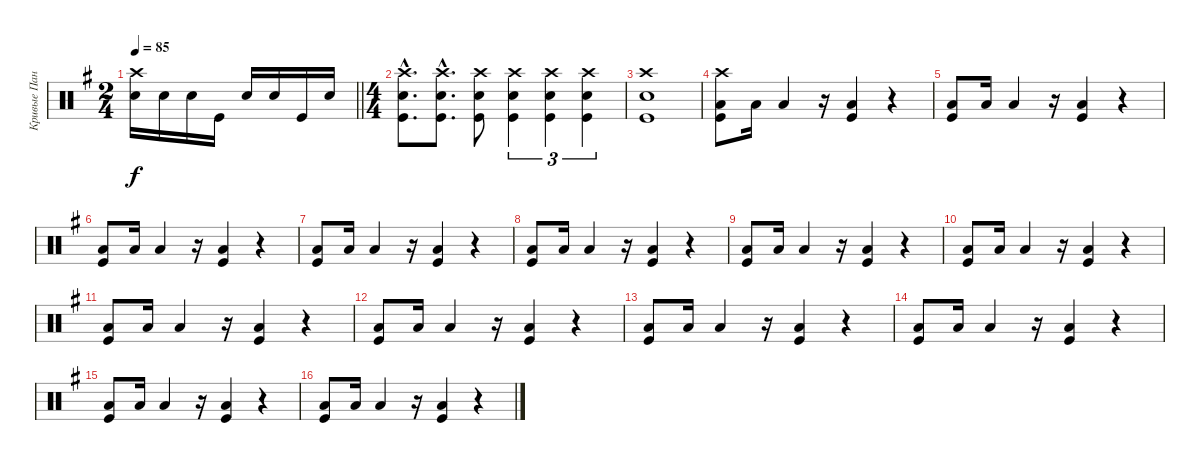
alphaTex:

\track ("Кривые Панковские Ударки (CPU)" "Кривые Пан") {instrument percussion}
\staff {score}
\articulation defaults
\ts (2 4)
\tempo 85
\clef neutral
\barLineRight lightlight
\ks eminor
("Crash high (hit)" "Snare (hit) 2").16{dy f} "Snare (hit) 2".16 "Snare (hit) 2".16 "Kick (hit)".16 "Snare (hit) 2".16 "Snare (hit) 2".16 "Kick (hit)".16 "Snare (hit) 2".16 |
\ts (4 4)
("Crash high (hit)"{hac} "Snare (hit) 2"{hac} "Kick (hit)"{hac}).8{d} ("Crash high (hit)"{hac} "Snare (hit) 2"{hac} "Kick (hit)"{hac}).8{d} ("Crash high (hit)" "Snare (hit) 2" "Kick (hit)").8 ("Crash high (hit)" "Snare (hit) 2" "Kick (hit)").4{tu (3 2)} ("Crash high (hit)" "Snare (hit) 2" "Kick (hit)").4{tu (3 2)} ("Crash high (hit)" "Snare (hit) 2" "Kick (hit)").4{tu (3 2)} |
("Crash high (hit)" "Snare (hit) 2" "Kick (hit)").1 |
("Crash high (hit)" "Kick (hit)" "Low Floor Tom (hit)").8 "Low Floor Tom (hit)".16 "Low Floor Tom (hit)".4 r.16 ("Kick (hit)" "Low Floor Tom (hit)").4 r.4 |
("Kick (hit)" "Low Floor Tom (hit)").8 "Low Floor Tom (hit)".16 "Low Floor Tom (hit)".4 r.16 ("Kick (hit)" "Low Floor Tom (hit)").4 r.4 |
("Kick (hit)" "Low Floor Tom (hit)").8 "Low Floor Tom (hit)".16 "Low Floor Tom (hit)".4 r.16 ("Kick (hit)" "Low Floor Tom (hit)").4 r.4 |
("Kick (hit)" "Low Floor Tom (hit)").8 "Low Floor Tom (hit)".16 "Low Floor Tom (hit)".4 r.16 ("Kick (hit)" "Low Floor Tom (hit)").4 r.4 |
("Kick (hit)" "Low Floor Tom (hit)").8 "Low Floor Tom (hit)".16 "Low Floor Tom (hit)".4 r.16 ("Kick (hit)" "Low Floor Tom (hit)").4 r.4 |
("Kick (hit)" "Low Floor Tom (hit)").8 "Low Floor Tom (hit)".16 "Low Floor Tom (hit)".4 r.16 ("Kick (hit)" "Low Floor Tom (hit)").4 r.4 |
("Kick (hit)" "Low Floor Tom (hit)").8 "Low Floor Tom (hit)".16 "Low Floor Tom (hit)".4 r.16 ("Kick (hit)" "Low Floor Tom (hit)").4 r.4 |
("Kick (hit)" "Low Floor Tom (hit)").8 "Low Floor Tom (hit)".16 "Low Floor Tom (hit)".4 r.16 ("Kick (hit)" "Low Floor Tom (hit)").4 r.4 |
("Kick (hit)" "Low Floor Tom (hit)").8 "Low Floor Tom (hit)".16 "Low Floor Tom (hit)".4 r.16 ("Kick (hit)" "Low Floor Tom (hit)").4 r.4 |
("Kick (hit)" "Low Floor Tom (hit)").8 "Low Floor Tom (hit)".16 "Low Floor Tom (hit)".4 r.16 ("Kick (hit)" "Low Floor Tom (hit)").4 r.4 |
("Kick (hit)" "Low Floor Tom (hit)").8 "Low Floor Tom (hit)".16 "Low Floor Tom (hit)".4 r.16 ("Kick (hit)" "Low Floor Tom (hit)").4 r.4 |
("Kick (hit)" "Low Floor Tom (hit)").8 "Low Floor Tom (hit)".16 "Low Floor Tom (hit)".4 r.16 ("Kick (hit)" "Low Floor Tom (hit)").4 r.4 |
("Kick (hit)" "Low Floor Tom (hit)").8 "Low Floor Tom (hit)".16 "Low Floor Tom (hit)".4 r.16 ("Kick (hit)" "Low Floor Tom (hit)").4 r.4
